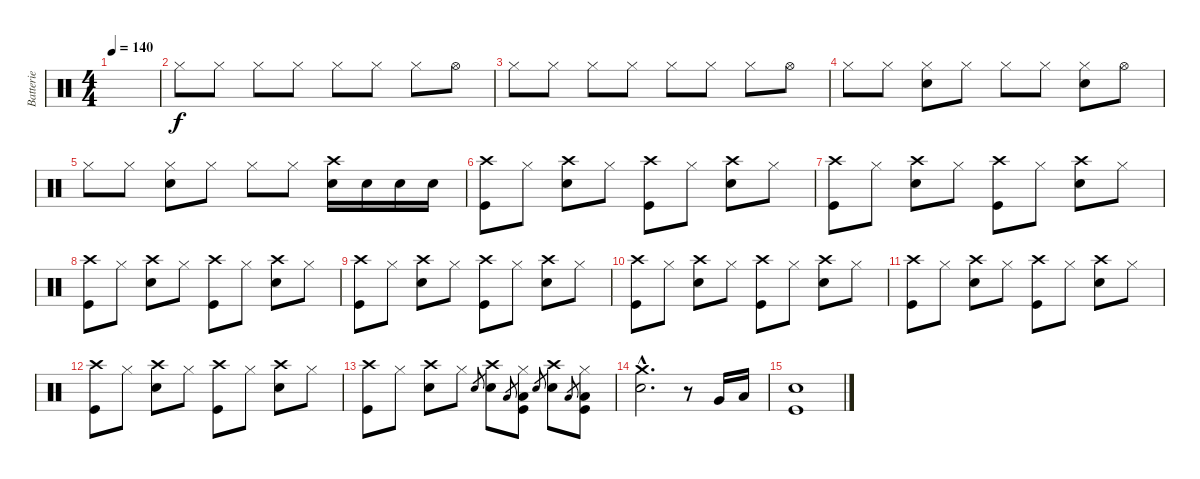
\track ("Batterie" "Batterie") {instrument percussion}
\staff {score}
\articulation defaults
\ts (4 4)
\tempo 140
\clef neutral
\ks c
|
"Hi-Hat (closed)".8 "Hi-Hat (closed)".8 "Hi-Hat (closed)".8 "Hi-Hat (closed)".8 "Hi-Hat (closed)".8 "Hi-Hat (closed)".8 "Hi-Hat (closed)".8 "Hi-Hat (open)".8 |
"Hi-Hat (closed)".8 "Hi-Hat (closed)".8 "Hi-Hat (closed)".8 "Hi-Hat (closed)".8 "Hi-Hat (closed)".8 "Hi-Hat (closed)".8 "Hi-Hat (closed)".8 "Hi-Hat (open)".8 |
"Hi-Hat (closed)".8 "Hi-Hat (closed)".8 ("Hi-Hat (closed)" "Electric Snare (hit)").8 "Hi-Hat (closed)".8 "Hi-Hat (closed)".8 "Hi-Hat (closed)".8 ("Hi-Hat (closed)" "Electric Snare (hit)").8 "Hi-Hat (open)".8 |
"Hi-Hat (closed)".8 "Hi-Hat (closed)".8 ("Hi-Hat (closed)" "Electric Snare (hit)").8 "Hi-Hat (closed)".8 "Hi-Hat (closed)".8 "Hi-Hat (closed)".8 ("Crash high (hit)" "Electric Snare (hit)").16 "Electric Snare (hit)".16 "Electric Snare (hit)".16 "Electric Snare (hit)".16 |
("Crash high (hit)" "Kick (hit)").8 "Hi-Hat (closed)".8 ("Crash high (hit)" "Electric Snare (hit)").8 "Hi-Hat (closed)".8 ("Crash high (hit)" "Kick (hit)").8 "Hi-Hat (closed)".8 ("Crash high (hit)" "Electric Snare (hit)").8 "Hi-Hat (closed)".8 |
("Crash high (hit)" "Kick (hit)").8 "Hi-Hat (closed)".8 ("Crash high (hit)" "Electric Snare (hit)").8 "Hi-Hat (closed)".8 ("Crash high (hit)" "Kick (hit)").8 "Hi-Hat (closed)".8 ("Crash high (hit)" "Electric Snare (hit)").8 "Hi-Hat (closed)".8 |
("Crash high (hit)" "Kick (hit)").8 "Hi-Hat (closed)".8 ("Crash high (hit)" "Electric Snare (hit)").8 "Hi-Hat (closed)".8 ("Crash high (hit)" "Kick (hit)").8 "Hi-Hat (closed)".8 ("Crash high (hit)" "Electric Snare (hit)").8 "Hi-Hat (closed)".8 |
("Crash high (hit)" "Kick (hit)").8 "Hi-Hat (closed)".8 ("Crash high (hit)" "Electric Snare (hit)").8 "Hi-Hat (closed)".8 ("Crash high (hit)" "Kick (hit)").8 "Hi-Hat (closed)".8 ("Crash high (hit)" "Electric Snare (hit)").8 "Hi-Hat (closed)".8 |
("Crash high (hit)" "Kick (hit)").8 "Hi-Hat (closed)".8 ("Crash high (hit)" "Electric Snare (hit)").8 "Hi-Hat (closed)".8 ("Crash high (hit)" "Kick (hit)").8 "Hi-Hat (closed)".8 ("Crash high (hit)" "Electric Snare (hit)").8 "Hi-Hat (closed)".8 |
("Crash high (hit)" "Kick (hit)").8 "Hi-Hat (closed)".8 ("Crash high (hit)" "Electric Snare (hit)").8 "Hi-Hat (closed)".8 ("Crash high (hit)" "Kick (hit)").8 "Hi-Hat (closed)".8 ("Crash high (hit)" "Electric Snare (hit)").8 "Hi-Hat (closed)".8 |
("Crash high (hit)" "Kick (hit)").8 "Hi-Hat (closed)".8 ("Crash high (hit)" "Electric Snare (hit)").8 "Hi-Hat (closed)".8 ("Crash high (hit)" "Kick (hit)").8 "Hi-Hat (closed)".8 ("Crash high (hit)" "Electric Snare (hit)").8 "Hi-Hat (closed)".8 |
("Crash high (hit)" "Kick (hit)").8 "Hi-Hat (closed)".8 ("Crash high (hit)" "Electric Snare (hit)").8 "Hi-Hat (closed)".8 "Electric Snare (hit)".8{gr} ("Crash high (hit)" "Electric Snare (hit)").8 "Low Floor Tom (hit)".8{gr} ("Hi-Hat (closed)" "Kick (hit)" "Low Floor Tom (hit)").8 "Electric Snare (hit)".8{gr} ("Crash high (hit)" "Electric Snare (hit)").8 "Low Floor Tom (hit)".8{gr} ("Hi-Hat (closed)" "Kick (hit)" "Low Floor Tom (hit)").8 |
("Crash medium (hit)"{hac} "Electric Snare (hit)"{hac}).2{d} r.8 "Very Low Tom (hit)".16 "Low Floor Tom (hit)".16 |
("Electric Snare (hit)" "Kick (hit)").1
